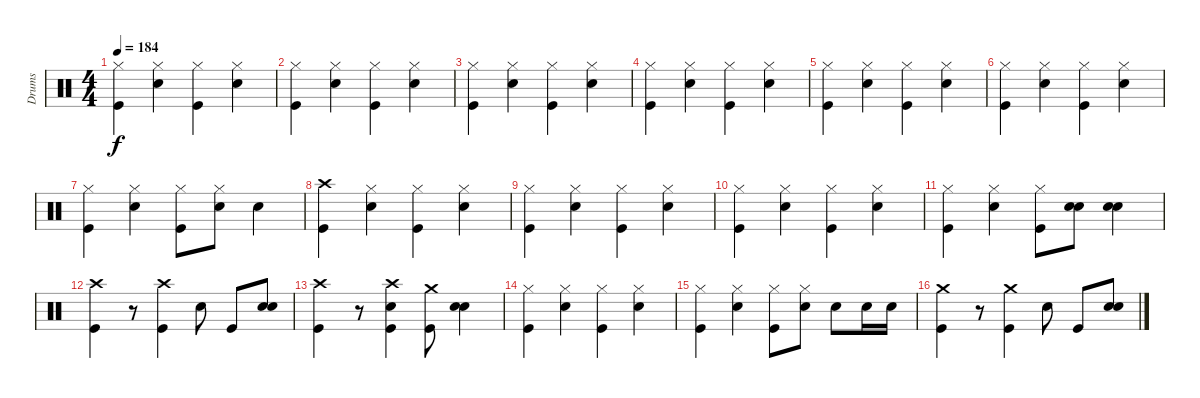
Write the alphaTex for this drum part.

\track ("Drums" "Drums") {instrument percussion}
\staff {score}
\articulation defaults
\ts (4 4)
\tempo 184
\clef neutral
\ks c
("Hi-Hat (closed)" "Kick (hit)").4{dy f} ("Hi-Hat (closed)" "Electric Snare (hit)").4 ("Hi-Hat (closed)" "Kick (hit)").4 ("Hi-Hat (closed)" "Electric Snare (hit)").4 |
("Hi-Hat (closed)" "Kick (hit)").4 ("Hi-Hat (closed)" "Electric Snare (hit)").4 ("Hi-Hat (closed)" "Kick (hit)").4 ("Hi-Hat (closed)" "Electric Snare (hit)").4 |
("Hi-Hat (closed)" "Kick (hit)").4 ("Hi-Hat (closed)" "Electric Snare (hit)").4 ("Hi-Hat (closed)" "Kick (hit)").4 ("Hi-Hat (closed)" "Electric Snare (hit)").4 |
("Hi-Hat (closed)" "Kick (hit)").4 ("Hi-Hat (closed)" "Electric Snare (hit)").4 ("Hi-Hat (closed)" "Kick (hit)").4 ("Hi-Hat (closed)" "Electric Snare (hit)").4 |
("Hi-Hat (closed)" "Kick (hit)").4 ("Hi-Hat (closed)" "Electric Snare (hit)").4 ("Hi-Hat (closed)" "Kick (hit)").4 ("Hi-Hat (closed)" "Electric Snare (hit)").4 |
("Hi-Hat (closed)" "Kick (hit)").4 ("Hi-Hat (closed)" "Electric Snare (hit)").4 ("Hi-Hat (closed)" "Kick (hit)").4 ("Hi-Hat (closed)" "Electric Snare (hit)").4 |
("Hi-Hat (closed)" "Kick (hit)").4 ("Hi-Hat (closed)" "Electric Snare (hit)").4 ("Hi-Hat (closed)" "Kick (hit)").8 ("Hi-Hat (closed)" "Electric Snare (hit)").8 "Electric Snare (hit)".4 |
("Crash high (hit)" "Kick (hit)").4 ("Hi-Hat (closed)" "Electric Snare (hit)").4 ("Hi-Hat (closed)" "Kick (hit)").4 ("Hi-Hat (closed)" "Electric Snare (hit)").4 |
("Hi-Hat (closed)" "Kick (hit)").4 ("Hi-Hat (closed)" "Electric Snare (hit)").4 ("Hi-Hat (closed)" "Kick (hit)").4 ("Hi-Hat (closed)" "Electric Snare (hit)").4 |
("Hi-Hat (closed)" "Kick (hit)").4 ("Hi-Hat (closed)" "Electric Snare (hit)").4 ("Hi-Hat (closed)" "Kick (hit)").4 ("Hi-Hat (closed)" "Electric Snare (hit)").4 |
("Hi-Hat (closed)" "Kick (hit)").4 ("Hi-Hat (closed)" "Electric Snare (hit)").4 ("Hi-Hat (closed)" "Kick (hit)").8 ("Electric Snare (hit)" "Electric Snare (hit)").8 ("Electric Snare (hit)" "Electric Snare (hit)").4 |
("Crash high (hit)" "Kick (hit)").4 r.8 ("Crash high (hit)" "Kick (hit)").4 "Electric Snare (hit)".8 "Kick (hit)".8 ("Electric Snare (hit)" "Electric Snare (hit)").8 |
("Crash high (hit)" "Kick (hit)").4 r.8 ("Crash high (hit)" "Electric Snare (hit)" "Kick (hit)").4 ("Crash medium (hit)" "Kick (hit)").8 ("Electric Snare (hit)" "Electric Snare (hit)").4 |
("Hi-Hat (closed)" "Kick (hit)").4 ("Hi-Hat (closed)" "Electric Snare (hit)").4 ("Hi-Hat (closed)" "Kick (hit)").4 ("Hi-Hat (closed)" "Electric Snare (hit)").4 |
("Hi-Hat (closed)" "Kick (hit)").4 ("Hi-Hat (closed)" "Electric Snare (hit)").4 ("Hi-Hat (closed)" "Kick (hit)").8 ("Hi-Hat (closed)" "Electric Snare (hit)").8 "Electric Snare (hit)".8 "Electric Snare (hit)".16 "Electric Snare (hit)".16 |
("Crash medium (hit)" "Kick (hit)").4 r.8 ("Crash medium (hit)" "Kick (hit)").4 "Electric Snare (hit)".8 "Kick (hit)".8 ("Electric Snare (hit)" "Electric Snare (hit)").8
